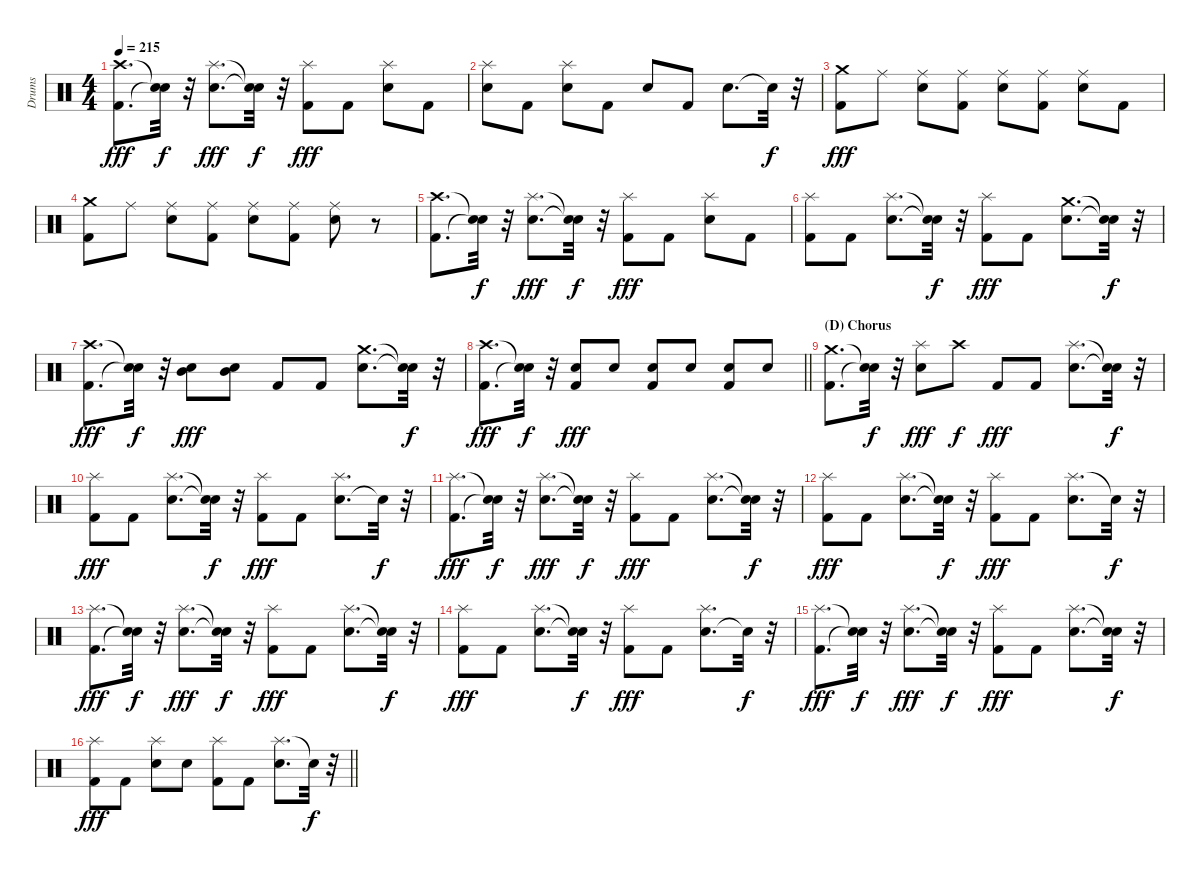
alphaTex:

\track ("Drums" "Drums") {instrument percussion}
\staff {score}
\articulation defaults
\ts (4 4)
\tempo 215
\clef neutral
\ks c
("Crash high (hit)" "Kick (hit) 2").8{d dy fff} ("Snare (hit)"{t} "Snare (hit)"{t}).32{dy f} r.32 ("Electric Snare (hit)" "Splash (hit)").8{d dy fff} ("Snare (hit)"{t} "Snare (hit)"{t}).32{dy f} r.32 ("Splash (hit)" "Kick (hit) 2").8{dy fff} "Kick (hit) 2".8 ("Electric Snare (hit)" "Splash (hit)").8 "Kick (hit) 2".8 |
("Electric Snare (hit)" "Splash (hit)").8 "Kick (hit) 2".8 ("Electric Snare (hit)" "Splash (hit)").8 "Kick (hit) 2".8 "Electric Snare (hit)".8 "Kick (hit) 2".8 "Electric Snare (hit)".8{d} "Snare (hit)"{t}.32{dy f} r.32 |
("Kick (hit) 2" "Crash medium (hit)").8{dy fff} "Ride (middle)".8 ("Electric Snare (hit)" "Ride (middle)").8 ("Kick (hit) 2" "Ride (middle)").8 ("Electric Snare (hit)" "Ride (middle)").8 ("Kick (hit) 2" "Ride (middle)").8 ("Electric Snare (hit)" "Ride (middle)").8 "Kick (hit) 2".8 |
("Kick (hit) 2" "Crash medium (hit)").8 "Ride (middle)".8 ("Electric Snare (hit)" "Ride (middle)").8 ("Kick (hit) 2" "Ride (middle)").8 ("Electric Snare (hit)" "Ride (middle)").8 ("Kick (hit) 2" "Ride (middle)").8 ("Electric Snare (hit)" "Ride (middle)").8 r.8 |
("Crash high (hit)" "Kick (hit) 2").8{d} ("Snare (hit)"{t} "Snare (hit)"{t}).32{dy f} r.32 ("Electric Snare (hit)" "Splash (hit)").8{d dy fff} ("Snare (hit)"{t} "Snare (hit)"{t}).32{dy f} r.32 ("Splash (hit)" "Kick (hit) 2").8{dy fff} "Kick (hit) 2".8 ("Electric Snare (hit)" "Splash (hit)").8 "Kick (hit) 2".8 |
("Splash (hit)" "Kick (hit) 2").8 "Kick (hit) 2".8 ("Splash (hit)" "Electric Snare (hit)").8{d} ("Snare (hit)"{t} "Snare (hit)"{t}).32{dy f} r.32 ("Splash (hit)" "Kick (hit) 2").8{dy fff} "Kick (hit) 2".8 ("Crash medium (hit)" "Electric Snare (hit)").8{d} ("Snare (hit)"{t} "Snare (hit)"{t}).32{dy f} r.32 |
("Kick (hit) 2" "Crash high (hit)").8{d dy fff} ("Snare (hit)"{t} "Snare (hit)"{t}).32{dy f} r.32 ("Mid Tom (hit)" "Electric Snare (hit)").8{dy fff} ("Mid Tom (hit)" "Electric Snare (hit)").8 "Kick (hit) 2".8 "Kick (hit) 2".8 ("Electric Snare (hit)" "Crash medium (hit)").8{d} ("Snare (hit)"{t} "Snare (hit)"{t}).32{dy f} r.32 |
\barLineRight lightlight
("Kick (hit) 2" "Crash high (hit)").8{d dy fff} ("Snare (hit)"{t} "Snare (hit)"{t}).32{dy f} r.32 ("Kick (hit) 2" "Electric Snare (hit)").8{dy fff} "Electric Snare (hit)".8 ("Kick (hit) 2" "Electric Snare (hit)").8 "Electric Snare (hit)".8 ("Kick (hit) 2" "Electric Snare (hit)").8 "Electric Snare (hit)".8 |
\section ("" "(D) Chorus")
("Kick (hit) 2" "Crash medium (hit)").8{d} ("Snare (hit)"{t} "Snare (hit)"{t}).32{dy f} r.32 ("Electric Snare (hit)" "Splash (hit)").8{dy fff} "Crash high (hit)".8{dy f} "Kick (hit) 2".8{dy fff} "Kick (hit) 2".8 ("Splash (hit)" "Electric Snare (hit)").8{d} ("Snare (hit)"{t} "Snare (hit)"{t}).32{dy f} r.32 |
("Kick (hit) 2" "Splash (hit)").8{dy fff} "Kick (hit) 2".8 ("Electric Snare (hit)" "Splash (hit)").8{d} ("Snare (hit)"{t} "Snare (hit)"{t}).32{dy f} r.32 ("Kick (hit) 2" "Splash (hit)").8{dy fff} "Kick (hit) 2".8 ("Electric Snare (hit)" "Splash (hit)").8{d} "Snare (hit)"{t}.32{dy f} r.32 |
("Splash (hit)" "Kick (hit) 2").8{d dy fff} ("Snare (hit)"{t} "Snare (hit)"{t}).32{dy f} r.32 ("Splash (hit)" "Electric Snare (hit)").8{d dy fff} ("Snare (hit)"{t} "Snare (hit)"{t}).32{dy f} r.32 ("Splash (hit)" "Kick (hit) 2").8{dy fff} "Kick (hit) 2".8 ("Electric Snare (hit)" "Splash (hit)").8{d} ("Snare (hit)"{t} "Snare (hit)"{t}).32{dy f} r.32 |
("Kick (hit) 2" "Splash (hit)").8{dy fff} "Kick (hit) 2".8 ("Electric Snare (hit)" "Splash (hit)").8{d} ("Snare (hit)"{t} "Snare (hit)"{t}).32{dy f} r.32 ("Kick (hit) 2" "Splash (hit)").8{dy fff} "Kick (hit) 2".8 ("Splash (hit)" "Electric Snare (hit)").8{d} "Snare (hit)"{t}.32{dy f} r.32 |
("Kick (hit) 2" "Splash (hit)").8{d dy fff} ("Snare (hit)"{t} "Snare (hit)"{t}).32{dy f} r.32 ("Electric Snare (hit)" "Splash (hit)").8{d dy fff} ("Snare (hit)"{t} "Snare (hit)"{t}).32{dy f} r.32 ("Splash (hit)" "Kick (hit) 2").8{dy fff} "Kick (hit) 2".8 ("Splash (hit)" "Electric Snare (hit)").8{d} ("Snare (hit)"{t} "Snare (hit)"{t}).32{dy f} r.32 |
("Kick (hit) 2" "Splash (hit)").8{dy fff} "Kick (hit) 2".8 ("Electric Snare (hit)" "Splash (hit)").8{d} ("Snare (hit)"{t} "Snare (hit)"{t}).32{dy f} r.32 ("Splash (hit)" "Kick (hit) 2").8{dy fff} "Kick (hit) 2".8 ("Electric Snare (hit)" "Splash (hit)").8{d} "Snare (hit)"{t}.32{dy f} r.32 |
("Kick (hit) 2" "Splash (hit)").8{d dy fff} ("Snare (hit)"{t} "Snare (hit)"{t}).32{dy f} r.32 ("Splash (hit)" "Electric Snare (hit)").8{d dy fff} ("Snare (hit)"{t} "Snare (hit)"{t}).32{dy f} r.32 ("Splash (hit)" "Kick (hit) 2").8{dy fff} "Kick (hit) 2".8 ("Splash (hit)" "Electric Snare (hit)").8{d} ("Snare (hit)"{t} "Snare (hit)"{t}).32{dy f} r.32 |
\barLineRight lightlight
("Splash (hit)" "Kick (hit) 2").8{dy fff} "Kick (hit) 2".8 ("Electric Snare (hit)" "Splash (hit)").8 "Electric Snare (hit)".8 ("Kick (hit) 2" "Splash (hit)").8 "Kick (hit) 2".8 ("Splash (hit)" "Electric Snare (hit)").8{d} "Snare (hit)"{t}.32{dy f} r.32
